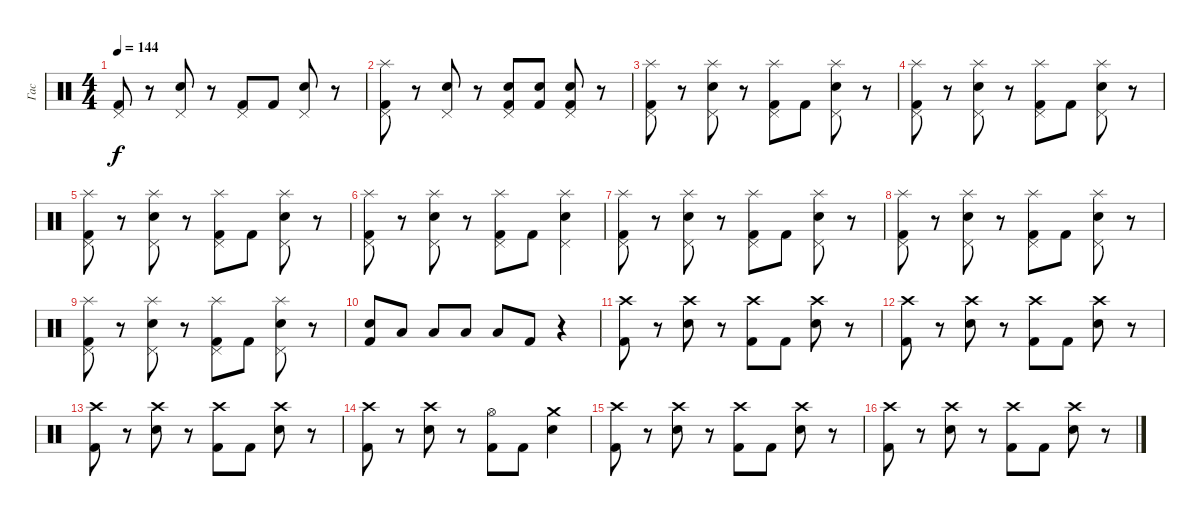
\track ("Гас" "Гас") {instrument percussion}
\staff {score}
\articulation defaults
\ts (4 4)
\tempo 144
\clef neutral
\ks c
("Pedal Hi-Hat (hit)" "Kick (hit) 2").8{dy f} r.8 ("Pedal Hi-Hat (hit)" "Electric Snare (hit)").8 r.8 ("Pedal Hi-Hat (hit)" "Kick (hit) 2").8 "Kick (hit) 2".8 ("Pedal Hi-Hat (hit)" "Electric Snare (hit)").8 r.8 |
("Pedal Hi-Hat (hit)" "Splash (hit)" "Kick (hit) 2").8 r.8 ("Pedal Hi-Hat (hit)" "Electric Snare (hit)").8 r.8 ("Pedal Hi-Hat (hit)" "Snare (hit) 2" "Kick (hit) 2").8 ("Electric Snare (hit)" "Kick (hit) 2").8 ("Pedal Hi-Hat (hit)" "Kick (hit) 2" "Electric Snare (hit)").8 r.8 |
("Pedal Hi-Hat (hit)" "Splash (hit)" "Kick (hit) 2").8 r.8 ("Pedal Hi-Hat (hit)" "Splash (hit)" "Electric Snare (hit)").8 r.8 ("Pedal Hi-Hat (hit)" "Splash (hit)" "Kick (hit) 2").8 "Kick (hit) 2".8 ("Pedal Hi-Hat (hit)" "Splash (hit)" "Electric Snare (hit)").8 r.8 |
("Pedal Hi-Hat (hit)" "Splash (hit)" "Kick (hit) 2").8 r.8 ("Pedal Hi-Hat (hit)" "Splash (hit)" "Electric Snare (hit)").8 r.8 ("Pedal Hi-Hat (hit)" "Splash (hit)" "Kick (hit) 2").8 "Kick (hit) 2".8 ("Pedal Hi-Hat (hit)" "Splash (hit)" "Electric Snare (hit)").8 r.8 |
("Pedal Hi-Hat (hit)" "Splash (hit)" "Kick (hit) 2").8 r.8 ("Pedal Hi-Hat (hit)" "Splash (hit)" "Electric Snare (hit)").8 r.8 ("Pedal Hi-Hat (hit)" "Splash (hit)" "Kick (hit) 2").8 "Kick (hit) 2".8 ("Pedal Hi-Hat (hit)" "Splash (hit)" "Electric Snare (hit)").8 r.8 |
("Pedal Hi-Hat (hit)" "Splash (hit)" "Kick (hit) 2").8 r.8 ("Pedal Hi-Hat (hit)" "Splash (hit)" "Electric Snare (hit)").8 r.8 ("Pedal Hi-Hat (hit)" "Splash (hit)" "Kick (hit) 2").8 "Kick (hit) 2".8 ("Pedal Hi-Hat (hit)" "Splash (hit)" "Electric Snare (hit)").4 |
("Pedal Hi-Hat (hit)" "Splash (hit)" "Kick (hit) 2").8 r.8 ("Pedal Hi-Hat (hit)" "Splash (hit)" "Electric Snare (hit)").8 r.8 ("Pedal Hi-Hat (hit)" "Splash (hit)" "Kick (hit) 2").8 "Kick (hit) 2".8 ("Pedal Hi-Hat (hit)" "Splash (hit)" "Electric Snare (hit)").8 r.8 |
("Pedal Hi-Hat (hit)" "Splash (hit)" "Kick (hit) 2").8 r.8 ("Pedal Hi-Hat (hit)" "Splash (hit)" "Electric Snare (hit)").8 r.8 ("Pedal Hi-Hat (hit)" "Splash (hit)" "Kick (hit) 2").8 "Kick (hit) 2".8 ("Pedal Hi-Hat (hit)" "Splash (hit)" "Electric Snare (hit)").8 r.8 |
("Pedal Hi-Hat (hit)" "Splash (hit)" "Kick (hit) 2").8 r.8 ("Pedal Hi-Hat (hit)" "Splash (hit)" "Electric Snare (hit)").8 r.8 ("Pedal Hi-Hat (hit)" "Splash (hit)" "Kick (hit) 2").8 "Kick (hit) 2".8 ("Pedal Hi-Hat (hit)" "Splash (hit)" "Electric Snare (hit)").8 r.8 |
("Electric Snare (hit)" "Kick (hit) 2").8 "Low Floor Tom (hit)".8 "Low Floor Tom (hit)".8 "Low Floor Tom (hit)".8 "Low Floor Tom (hit)".8 "Kick (hit) 2".8 r.4 |
("Crash high (hit)" "Kick (hit) 2").8 r.8 ("Crash high (hit)" "Electric Snare (hit)").8 r.8 ("Crash high (hit)" "Kick (hit) 2").8 "Kick (hit) 2".8 ("Crash high (hit)" "Electric Snare (hit)").8 r.8 |
("Crash high (hit)" "Kick (hit) 2").8 r.8 ("Crash high (hit)" "Electric Snare (hit)").8 r.8 ("Crash high (hit)" "Kick (hit) 2").8 "Kick (hit) 2".8 ("Crash high (hit)" "Electric Snare (hit)").8 r.8 |
("Crash high (hit)" "Kick (hit) 2").8 r.8 ("Crash high (hit)" "Electric Snare (hit)").8 r.8 ("Crash high (hit)" "Kick (hit) 2").8 "Kick (hit) 2".8 ("Crash high (hit)" "Electric Snare (hit)").8 r.8 |
("Crash high (hit)" "Kick (hit) 2").8 r.8 ("Crash high (hit)" "Electric Snare (hit)").8 r.8 ("Hi-Hat (open)" "Kick (hit) 2").8 "Kick (hit) 2".8 ("Crash medium (hit)" "Electric Snare (hit)").4 |
("Crash high (hit)" "Kick (hit) 2").8 r.8 ("Crash high (hit)" "Electric Snare (hit)").8 r.8 ("Crash high (hit)" "Kick (hit) 2").8 "Kick (hit) 2".8 ("Crash high (hit)" "Electric Snare (hit)").8 r.8 |
("Crash high (hit)" "Kick (hit) 2").8 r.8 ("Crash high (hit)" "Electric Snare (hit)").8 r.8 ("Crash high (hit)" "Kick (hit) 2").8 "Kick (hit) 2".8 ("Crash high (hit)" "Electric Snare (hit)").8 r.8
